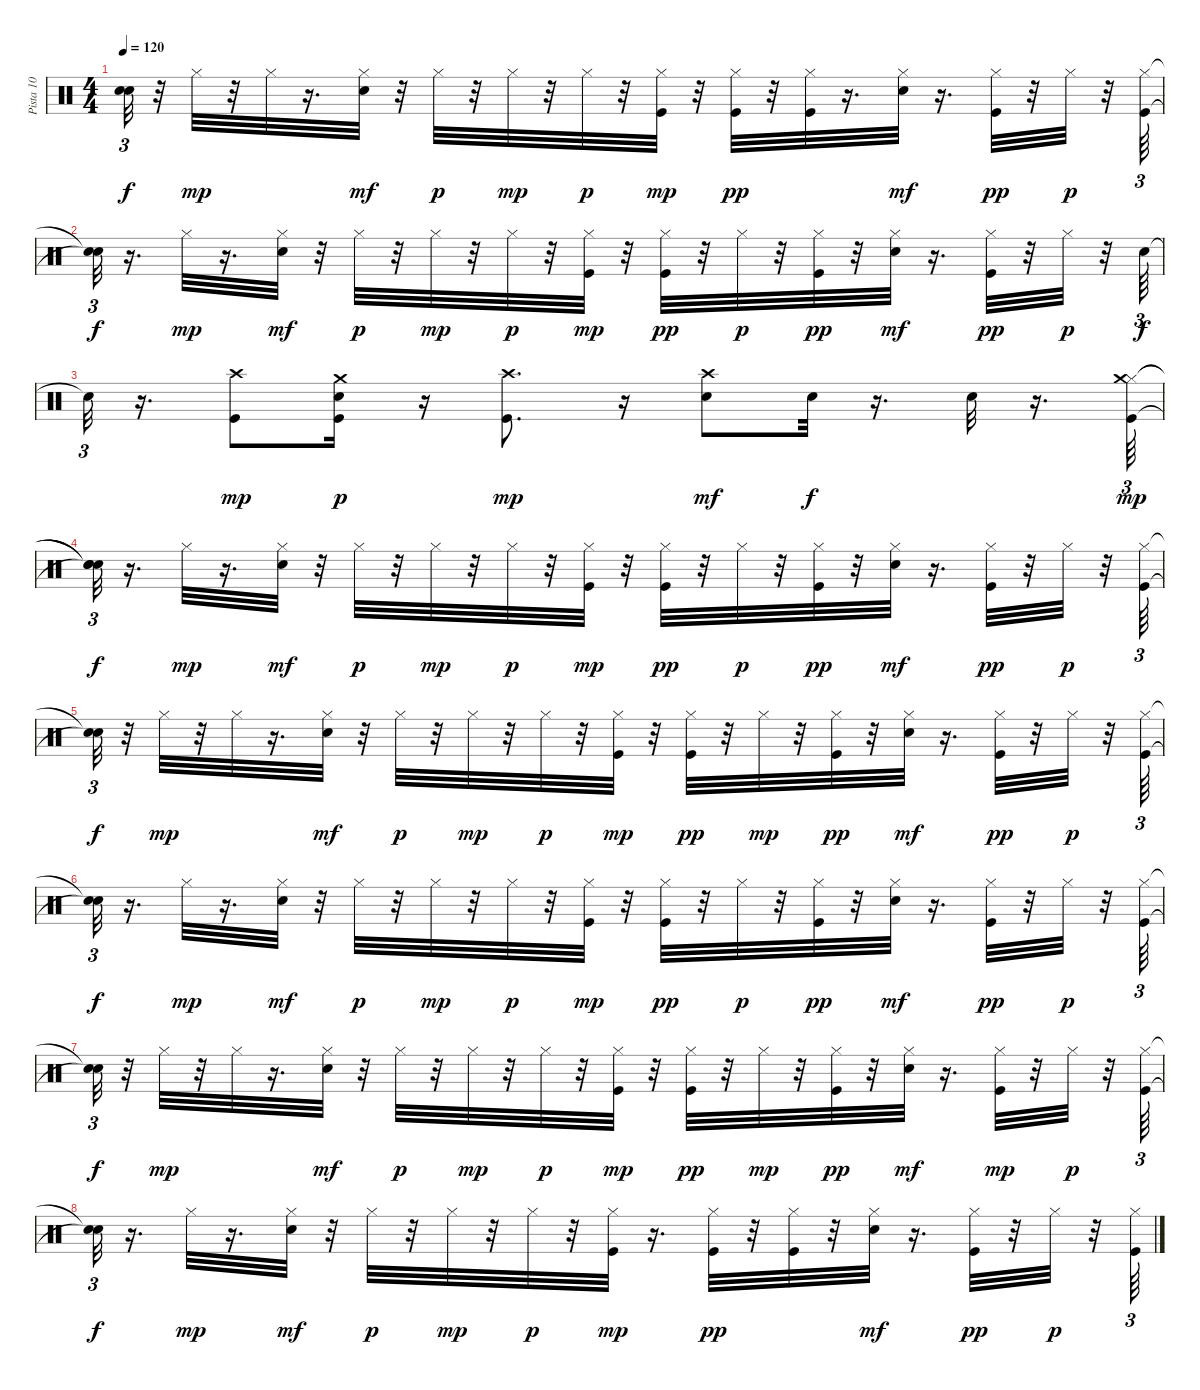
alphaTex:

\track ("Pista 10" "Pista 10") {instrument percussion}
\staff {score}
\articulation defaults
\ts (4 4)
\tempo 120
\clef neutral
\ks c
("Snare (hit)"{t} "Snare (hit)"{t}).32{tu (3 2) dy f} r.32 "Hi-Hat (closed)".32{dy mp} r.32 "Hi-Hat (closed)".32 r.16{d} ("Hi-Hat (closed)" "Snare (hit) 2").32{dy mf} r.32 "Hi-Hat (closed)".32{dy p} r.32 "Hi-Hat (closed)".32{dy mp} r.32 "Hi-Hat (closed)".32{dy p} r.32 ("Kick (hit)" "Hi-Hat (closed)").32{dy mp} r.32 ("Hi-Hat (closed)" "Kick (hit)").32{dy pp} r.32 ("Hi-Hat (closed)" "Kick (hit)").32 r.16{d} ("Hi-Hat (closed)" "Snare (hit) 2").32{dy mf} r.16{d} ("Hi-Hat (closed)" "Kick (hit)").32{dy pp} r.32 "Hi-Hat (closed)".32{dy p} r.32 ("Kick (hit)" "Hi-Hat (closed)").64{tu (3 2)} |
("Snare (hit)"{t} "Snare (hit)"{t}).32{tu (3 2) dy f} r.16{d} "Hi-Hat (closed)".32{dy mp} r.16{d} ("Hi-Hat (closed)" "Snare (hit) 2").32{dy mf} r.32 "Hi-Hat (closed)".32{dy p} r.32 "Hi-Hat (closed)".32{dy mp} r.32 "Hi-Hat (closed)".32{dy p} r.32 ("Kick (hit)" "Hi-Hat (closed)").32{dy mp} r.32 ("Hi-Hat (closed)" "Kick (hit)").32{dy pp} r.32 "Hi-Hat (closed)".32{dy p} r.32 ("Hi-Hat (closed)" "Kick (hit)").32{dy pp} r.32 ("Hi-Hat (closed)" "Snare (hit) 2").32{dy mf} r.16{d} ("Hi-Hat (closed)" "Kick (hit)").32{dy pp} r.32 "Hi-Hat (closed)".32{dy p} r.32 "Snare (hit) 2".64{tu (3 2) dy f} |
"Snare (hit)"{t}.32{tu (3 2)} r.16{d} ("Kick (hit)" "Crash high (hit)").8{dy mp} ("Kick (hit)" "Crash medium (hit)" "Snare (hit) 2").16{dy p} r.16 ("Kick (hit)" "Crash high (hit)").8{d dy mp} r.16 ("Crash high (hit)" "Snare (hit) 2").8{dy mf} "Snare (hit) 2".32{dy f} r.16{d} "Snare (hit) 2".32 r.16{d} ("Kick (hit)" "Hi-Hat (closed)" "Crash medium (hit)").64{tu (3 2) dy mp} |
("Snare (hit)"{t} "Snare (hit)"{t} "Snare (hit)"{t}).32{tu (3 2) dy f} r.16{d} "Hi-Hat (closed)".32{dy mp} r.16{d} ("Hi-Hat (closed)" "Snare (hit) 2").32{dy mf} r.32 "Hi-Hat (closed)".32{dy p} r.32 "Hi-Hat (closed)".32{dy mp} r.32 "Hi-Hat (closed)".32{dy p} r.32 ("Kick (hit)" "Hi-Hat (closed)").32{dy mp} r.32 ("Hi-Hat (closed)" "Kick (hit)").32{dy pp} r.32 "Hi-Hat (closed)".32{dy p} r.32 ("Hi-Hat (closed)" "Kick (hit)").32{dy pp} r.32 ("Hi-Hat (closed)" "Snare (hit) 2").32{dy mf} r.16{d} ("Hi-Hat (closed)" "Kick (hit)").32{dy pp} r.32 "Hi-Hat (closed)".32{dy p} r.32 ("Kick (hit)" "Hi-Hat (closed)").64{tu (3 2)} |
("Snare (hit)"{t} "Snare (hit)"{t}).32{tu (3 2) dy f} r.32 "Hi-Hat (closed)".32{dy mp} r.32 "Hi-Hat (closed)".32 r.16{d} ("Hi-Hat (closed)" "Snare (hit) 2").32{dy mf} r.32 "Hi-Hat (closed)".32{dy p} r.32 "Hi-Hat (closed)".32{dy mp} r.32 "Hi-Hat (closed)".32{dy p} r.32 ("Kick (hit)" "Hi-Hat (closed)").32{dy mp} r.32 ("Hi-Hat (closed)" "Kick (hit)").32{dy pp} r.32 "Hi-Hat (closed)".32{dy mp} r.32 ("Hi-Hat (closed)" "Kick (hit)").32{dy pp} r.32 ("Hi-Hat (closed)" "Snare (hit) 2").32{dy mf} r.16{d} ("Hi-Hat (closed)" "Kick (hit)").32{dy pp} r.32 "Hi-Hat (closed)".32{dy p} r.32 ("Kick (hit)" "Hi-Hat (closed)").64{tu (3 2)} |
("Snare (hit)"{t} "Snare (hit)"{t}).32{tu (3 2) dy f} r.16{d} "Hi-Hat (closed)".32{dy mp} r.16{d} ("Hi-Hat (closed)" "Snare (hit) 2").32{dy mf} r.32 "Hi-Hat (closed)".32{dy p} r.32 "Hi-Hat (closed)".32{dy mp} r.32 "Hi-Hat (closed)".32{dy p} r.32 ("Kick (hit)" "Hi-Hat (closed)").32{dy mp} r.32 ("Hi-Hat (closed)" "Kick (hit)").32{dy pp} r.32 "Hi-Hat (closed)".32{dy p} r.32 ("Hi-Hat (closed)" "Kick (hit)").32{dy pp} r.32 ("Hi-Hat (closed)" "Snare (hit) 2").32{dy mf} r.16{d} ("Hi-Hat (closed)" "Kick (hit)").32{dy pp} r.32 "Hi-Hat (closed)".32{dy p} r.32 ("Kick (hit)" "Hi-Hat (closed)").64{tu (3 2)} |
("Snare (hit)"{t} "Snare (hit)"{t}).32{tu (3 2) dy f} r.32 "Hi-Hat (closed)".32{dy mp} r.32 "Hi-Hat (closed)".32 r.16{d} ("Hi-Hat (closed)" "Snare (hit) 2").32{dy mf} r.32 "Hi-Hat (closed)".32{dy p} r.32 "Hi-Hat (closed)".32{dy mp} r.32 "Hi-Hat (closed)".32{dy p} r.32 ("Kick (hit)" "Hi-Hat (closed)").32{dy mp} r.32 ("Kick (hit)" "Hi-Hat (closed)").32{dy pp} r.32 "Hi-Hat (closed)".32{dy mp} r.32 ("Hi-Hat (closed)" "Kick (hit)").32{dy pp} r.32 ("Hi-Hat (closed)" "Snare (hit) 2").32{dy mf} r.16{d} ("Kick (hit)" "Hi-Hat (closed)").32{dy mp} r.32 "Hi-Hat (closed)".32{dy p} r.32 ("Kick (hit)" "Hi-Hat (closed)").64{tu (3 2)} |
("Snare (hit)"{t} "Snare (hit)"{t}).32{tu (3 2) dy f} r.16{d} "Hi-Hat (closed)".32{dy mp} r.16{d} ("Hi-Hat (closed)" "Snare (hit) 2").32{dy mf} r.32 "Hi-Hat (closed)".32{dy p} r.32 "Hi-Hat (closed)".32{dy mp} r.32 "Hi-Hat (closed)".32{dy p} r.32 ("Kick (hit)" "Hi-Hat (closed)").32{dy mp} r.16{d} ("Hi-Hat (closed)" "Kick (hit)").32{dy pp} r.32 ("Hi-Hat (closed)" "Kick (hit)").32 r.32 ("Hi-Hat (closed)" "Snare (hit) 2").32{dy mf} r.16{d} ("Hi-Hat (closed)" "Kick (hit)").32{dy pp} r.32 "Hi-Hat (closed)".32{dy p} r.32 ("Kick (hit)" "Hi-Hat (closed)").64{tu (3 2)}
